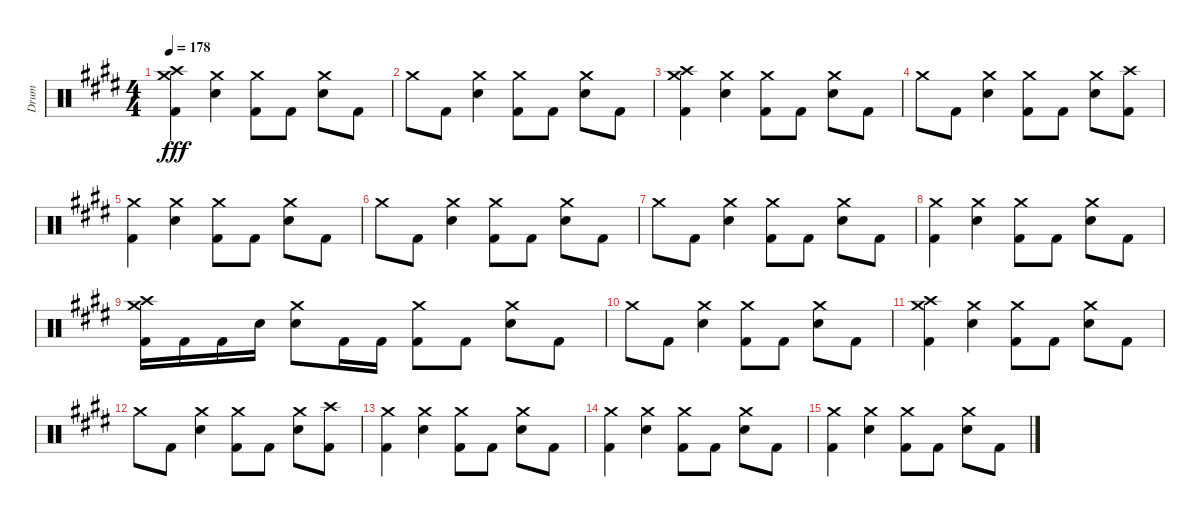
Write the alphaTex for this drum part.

\track ("Drum" "Drum") {instrument percussion}
\staff {score}
\articulation defaults
\ts (4 4)
\tempo 178
\clef neutral
\ks e
("Crash medium (hit)" "Crash high (hit)" "Kick (hit) 2").4{dy fff} ("Crash medium (hit)" "Electric Snare (hit)").4 ("Crash medium (hit)" "Kick (hit) 2").8 "Kick (hit) 2".8 ("Crash medium (hit)" "Electric Snare (hit)").8 "Kick (hit) 2".8 |
"Crash medium (hit)".8 "Kick (hit) 2".8 ("Crash medium (hit)" "Electric Snare (hit)").4 ("Crash medium (hit)" "Kick (hit) 2").8 "Kick (hit) 2".8 ("Crash medium (hit)" "Electric Snare (hit)").8 "Kick (hit) 2".8 |
("Crash medium (hit)" "Crash high (hit)" "Kick (hit) 2").4 ("Crash medium (hit)" "Electric Snare (hit)").4 ("Crash medium (hit)" "Kick (hit) 2").8 "Kick (hit) 2".8 ("Crash medium (hit)" "Electric Snare (hit)").8 "Kick (hit) 2".8 |
"Crash medium (hit)".8 "Kick (hit) 2".8 ("Crash medium (hit)" "Electric Snare (hit)").4 ("Crash medium (hit)" "Kick (hit) 2").8 "Kick (hit) 2".8 ("Crash medium (hit)" "Electric Snare (hit)").8 ("Crash high (hit)" "Kick (hit) 2").8 |
("Crash medium (hit)" "Kick (hit) 2").4 ("Crash medium (hit)" "Electric Snare (hit)").4 ("Crash medium (hit)" "Kick (hit) 2").8 "Kick (hit) 2".8 ("Crash medium (hit)" "Electric Snare (hit)").8 "Kick (hit) 2".8 |
"Crash medium (hit)".8 "Kick (hit) 2".8 ("Crash medium (hit)" "Electric Snare (hit)").4 ("Crash medium (hit)" "Kick (hit) 2").8 "Kick (hit) 2".8 ("Crash medium (hit)" "Electric Snare (hit)").8 "Kick (hit) 2".8 |
"Crash medium (hit)".8 "Kick (hit) 2".8 ("Crash medium (hit)" "Electric Snare (hit)").4 ("Crash medium (hit)" "Kick (hit) 2").8 "Kick (hit) 2".8 ("Crash medium (hit)" "Electric Snare (hit)").8 "Kick (hit) 2".8 |
("Crash medium (hit)" "Kick (hit) 2").4 ("Crash medium (hit)" "Electric Snare (hit)").4 ("Crash medium (hit)" "Kick (hit) 2").8 "Kick (hit) 2".8 ("Crash medium (hit)" "Electric Snare (hit)").8 "Kick (hit) 2".8 |
("Crash medium (hit)" "Crash high (hit)" "Kick (hit) 2").16 "Kick (hit) 2".16 "Kick (hit) 2".16 "Snare (hit)".16 ("Crash medium (hit)" "Electric Snare (hit)").8 "Kick (hit) 2".16 "Kick (hit) 2".16 ("Crash medium (hit)" "Kick (hit) 2").8 "Kick (hit) 2".8 ("Crash medium (hit)" "Electric Snare (hit)").8 "Kick (hit) 2".8 |
"Crash medium (hit)".8 "Kick (hit) 2".8 ("Crash medium (hit)" "Electric Snare (hit)").4 ("Crash medium (hit)" "Kick (hit) 2").8 "Kick (hit) 2".8 ("Crash medium (hit)" "Electric Snare (hit)").8 "Kick (hit) 2".8 |
("Crash medium (hit)" "Crash high (hit)" "Kick (hit) 2").4 ("Crash medium (hit)" "Electric Snare (hit)").4 ("Crash medium (hit)" "Kick (hit) 2").8 "Kick (hit) 2".8 ("Crash medium (hit)" "Electric Snare (hit)").8 "Kick (hit) 2".8 |
"Crash medium (hit)".8 "Kick (hit) 2".8 ("Crash medium (hit)" "Electric Snare (hit)").4 ("Crash medium (hit)" "Kick (hit) 2").8 "Kick (hit) 2".8 ("Crash medium (hit)" "Electric Snare (hit)").8 ("Crash high (hit)" "Kick (hit) 2").8 |
("Crash medium (hit)" "Kick (hit) 2").4 ("Crash medium (hit)" "Electric Snare (hit)").4 ("Crash medium (hit)" "Kick (hit) 2").8 "Kick (hit) 2".8 ("Crash medium (hit)" "Electric Snare (hit)").8 "Kick (hit) 2".8 |
("Crash medium (hit)" "Kick (hit) 2").4 ("Crash medium (hit)" "Electric Snare (hit)").4 ("Crash medium (hit)" "Kick (hit) 2").8 "Kick (hit) 2".8 ("Crash medium (hit)" "Electric Snare (hit)").8 "Kick (hit) 2".8 |
("Crash medium (hit)" "Kick (hit) 2").4 ("Crash medium (hit)" "Electric Snare (hit)").4 ("Crash medium (hit)" "Kick (hit) 2").8 "Kick (hit) 2".8 ("Crash medium (hit)" "Electric Snare (hit)").8 "Kick (hit) 2".8
